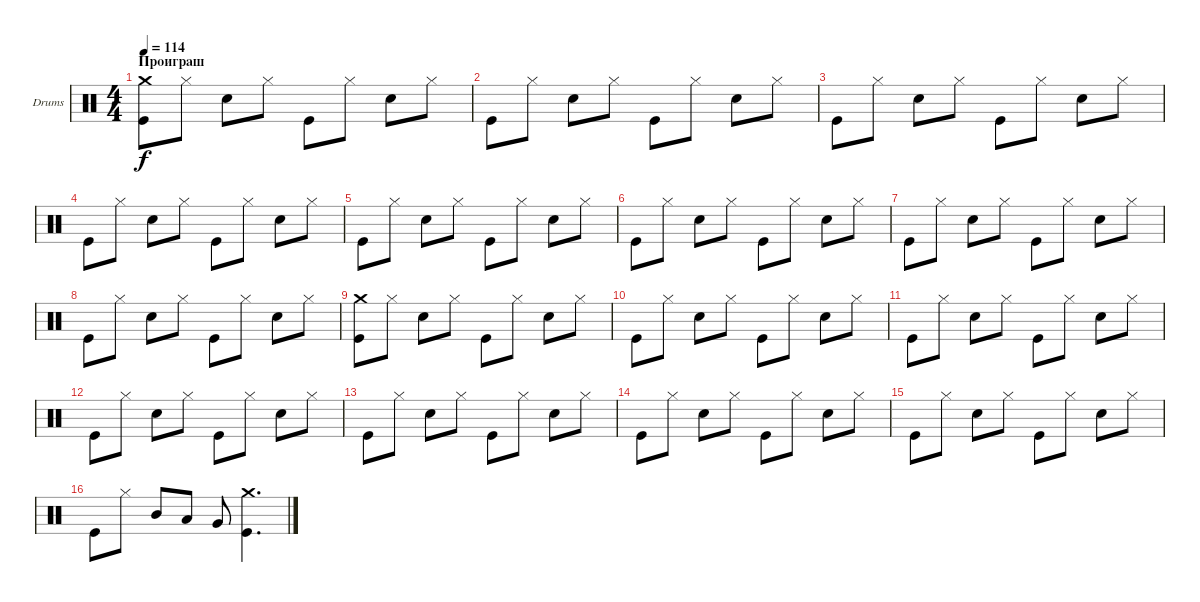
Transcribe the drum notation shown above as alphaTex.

\defaultSystemsLayout 4
\bracketExtendMode groupsimilarinstruments
\firstSystemTrackNameOrientation horizontal
\otherSystemsTrackNameOrientation horizontal
\track ("Е. Кулаков" "Drums") {instrument percussion}
\staff {score}
\articulation defaults
\ts (4 4)
\section ("" "Проиграш")
\tempo 114
\clef neutral
\ks c
("Kick (hit)" "Crash medium (hit)").8{dy f} "Hi-Hat (closed)".8 "Snare (hit) 2".8 "Hi-Hat (closed)".8 "Kick (hit)".8 "Hi-Hat (closed)".8 "Snare (hit) 2".8 "Hi-Hat (closed)".8 |
"Kick (hit)".8 "Hi-Hat (closed)".8 "Snare (hit) 2".8 "Hi-Hat (closed)".8 "Kick (hit)".8 "Hi-Hat (closed)".8 "Snare (hit) 2".8 "Hi-Hat (closed)".8 |
"Kick (hit)".8 "Hi-Hat (closed)".8 "Snare (hit) 2".8 "Hi-Hat (closed)".8 "Kick (hit)".8 "Hi-Hat (closed)".8 "Snare (hit) 2".8 "Hi-Hat (closed)".8 |
"Kick (hit)".8 "Hi-Hat (closed)".8 "Snare (hit) 2".8 "Hi-Hat (closed)".8 "Kick (hit)".8 "Hi-Hat (closed)".8 "Snare (hit) 2".8 "Hi-Hat (closed)".8 |
"Kick (hit)".8 "Hi-Hat (closed)".8 "Snare (hit) 2".8 "Hi-Hat (closed)".8 "Kick (hit)".8 "Hi-Hat (closed)".8 "Snare (hit) 2".8 "Hi-Hat (closed)".8 |
"Kick (hit)".8 "Hi-Hat (closed)".8 "Snare (hit) 2".8 "Hi-Hat (closed)".8 "Kick (hit)".8 "Hi-Hat (closed)".8 "Snare (hit) 2".8 "Hi-Hat (closed)".8 |
"Kick (hit)".8 "Hi-Hat (closed)".8 "Snare (hit) 2".8 "Hi-Hat (closed)".8 "Kick (hit)".8 "Hi-Hat (closed)".8 "Snare (hit) 2".8 "Hi-Hat (closed)".8 |
"Kick (hit)".8 "Hi-Hat (closed)".8 "Snare (hit) 2".8 "Hi-Hat (closed)".8 "Kick (hit)".8 "Hi-Hat (closed)".8 "Snare (hit) 2".8 "Hi-Hat (closed)".8 |
("Kick (hit)" "Crash medium (hit)").8 "Hi-Hat (closed)".8 "Snare (hit) 2".8 "Hi-Hat (closed)".8 "Kick (hit)".8 "Hi-Hat (closed)".8 "Snare (hit) 2".8 "Hi-Hat (closed)".8 |
"Kick (hit)".8 "Hi-Hat (closed)".8 "Snare (hit) 2".8 "Hi-Hat (closed)".8 "Kick (hit)".8 "Hi-Hat (closed)".8 "Snare (hit) 2".8 "Hi-Hat (closed)".8 |
"Kick (hit)".8 "Hi-Hat (closed)".8 "Snare (hit) 2".8 "Hi-Hat (closed)".8 "Kick (hit)".8 "Hi-Hat (closed)".8 "Snare (hit) 2".8 "Hi-Hat (closed)".8 |
"Kick (hit)".8 "Hi-Hat (closed)".8 "Snare (hit) 2".8 "Hi-Hat (closed)".8 "Kick (hit)".8 "Hi-Hat (closed)".8 "Snare (hit) 2".8 "Hi-Hat (closed)".8 |
"Kick (hit)".8 "Hi-Hat (closed)".8 "Snare (hit) 2".8 "Hi-Hat (closed)".8 "Kick (hit)".8 "Hi-Hat (closed)".8 "Snare (hit) 2".8 "Hi-Hat (closed)".8 |
"Kick (hit)".8 "Hi-Hat (closed)".8 "Snare (hit) 2".8 "Hi-Hat (closed)".8 "Kick (hit)".8 "Hi-Hat (closed)".8 "Snare (hit) 2".8 "Hi-Hat (closed)".8 |
"Kick (hit)".8 "Hi-Hat (closed)".8 "Snare (hit) 2".8 "Hi-Hat (closed)".8 "Kick (hit)".8 "Hi-Hat (closed)".8 "Snare (hit) 2".8 "Hi-Hat (closed)".8 |
"Kick (hit)".8 "Hi-Hat (closed)".8 "Mid Tom (hit)".8 "Low Tom (hit)".8 "Very Low Tom (hit)".8 ("Kick (hit)" "Crash medium (hit)").4{d}
